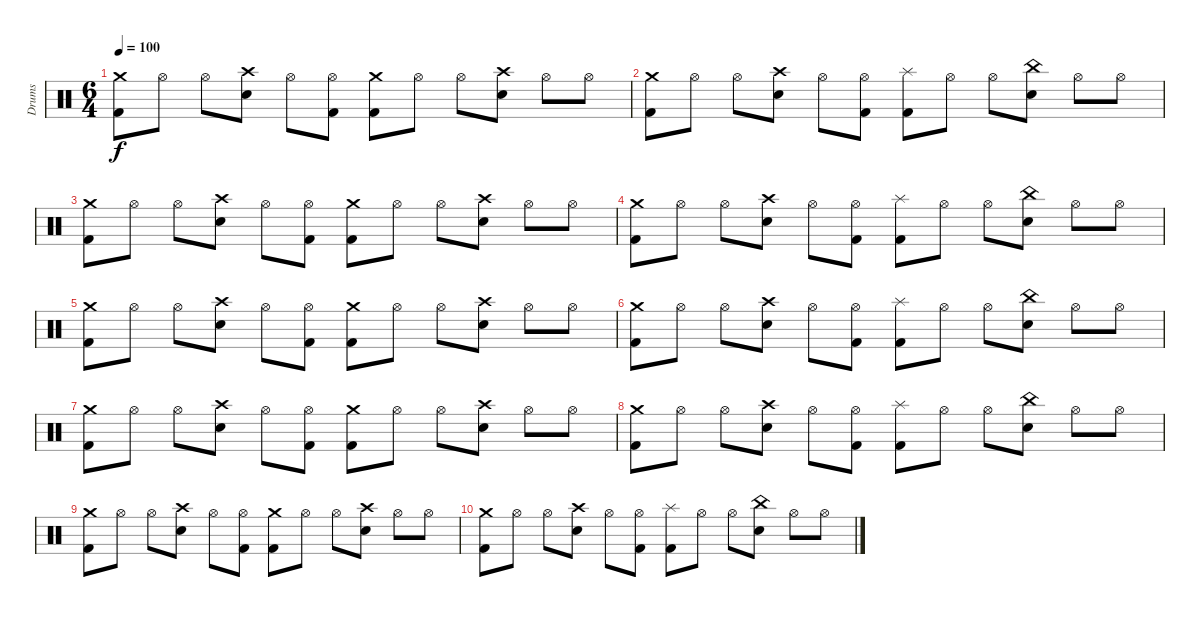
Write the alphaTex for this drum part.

\track ("Drums" "Drums") {instrument percussion}
\staff {score}
\articulation defaults
\ts (6 4)
\tempo 100
\clef neutral
\ks c
("Crash medium (hit)" "Kick (hit) 2").8{dy f} "Hi-Hat (open)".8 "Hi-Hat (open)".8 ("Crash high (hit)" "Electric Snare (hit)").8 "Hi-Hat (open)".8 ("Hi-Hat (open)" "Kick (hit) 2").8 ("Crash medium (hit)" "Kick (hit) 2").8 "Hi-Hat (open)".8 "Hi-Hat (open)".8 ("Crash high (hit)" "Electric Snare (hit)").8 "Hi-Hat (open)".8 "Hi-Hat (open)".8 |
("Crash medium (hit)" "Kick (hit) 2").8 "Hi-Hat (open)".8 "Hi-Hat (open)".8 ("Crash high (hit)" "Electric Snare (hit)").8 "Hi-Hat (open)".8 ("Hi-Hat (open)" "Kick (hit) 2").8 ("Splash (hit)" "Kick (hit) 2").8 "Hi-Hat (open)".8 "Hi-Hat (open)".8 ("China (hit)" "Electric Snare (hit)").8 "Hi-Hat (open)".8 "Hi-Hat (open)".8 |
("Crash medium (hit)" "Kick (hit) 2").8 "Hi-Hat (open)".8 "Hi-Hat (open)".8 ("Crash high (hit)" "Electric Snare (hit)").8 "Hi-Hat (open)".8 ("Hi-Hat (open)" "Kick (hit) 2").8 ("Crash medium (hit)" "Kick (hit) 2").8 "Hi-Hat (open)".8 "Hi-Hat (open)".8 ("Crash high (hit)" "Electric Snare (hit)").8 "Hi-Hat (open)".8 "Hi-Hat (open)".8 |
("Crash medium (hit)" "Kick (hit) 2").8 "Hi-Hat (open)".8 "Hi-Hat (open)".8 ("Crash high (hit)" "Electric Snare (hit)").8 "Hi-Hat (open)".8 ("Hi-Hat (open)" "Kick (hit) 2").8 ("Splash (hit)" "Kick (hit) 2").8 "Hi-Hat (open)".8 "Hi-Hat (open)".8 ("China (hit)" "Electric Snare (hit)").8 "Hi-Hat (open)".8 "Hi-Hat (open)".8 |
("Crash medium (hit)" "Kick (hit) 2").8 "Hi-Hat (open)".8 "Hi-Hat (open)".8 ("Crash high (hit)" "Electric Snare (hit)").8 "Hi-Hat (open)".8 ("Hi-Hat (open)" "Kick (hit) 2").8 ("Crash medium (hit)" "Kick (hit) 2").8 "Hi-Hat (open)".8 "Hi-Hat (open)".8 ("Crash high (hit)" "Electric Snare (hit)").8 "Hi-Hat (open)".8 "Hi-Hat (open)".8 |
("Crash medium (hit)" "Kick (hit) 2").8 "Hi-Hat (open)".8 "Hi-Hat (open)".8 ("Crash high (hit)" "Electric Snare (hit)").8 "Hi-Hat (open)".8 ("Hi-Hat (open)" "Kick (hit) 2").8 ("Splash (hit)" "Kick (hit) 2").8 "Hi-Hat (open)".8 "Hi-Hat (open)".8 ("China (hit)" "Electric Snare (hit)").8 "Hi-Hat (open)".8 "Hi-Hat (open)".8 |
("Crash medium (hit)" "Kick (hit) 2").8 "Hi-Hat (open)".8 "Hi-Hat (open)".8 ("Crash high (hit)" "Electric Snare (hit)").8 "Hi-Hat (open)".8 ("Hi-Hat (open)" "Kick (hit) 2").8 ("Crash medium (hit)" "Kick (hit) 2").8 "Hi-Hat (open)".8 "Hi-Hat (open)".8 ("Crash high (hit)" "Electric Snare (hit)").8 "Hi-Hat (open)".8 "Hi-Hat (open)".8 |
("Crash medium (hit)" "Kick (hit) 2").8 "Hi-Hat (open)".8 "Hi-Hat (open)".8 ("Crash high (hit)" "Electric Snare (hit)").8 "Hi-Hat (open)".8 ("Hi-Hat (open)" "Kick (hit) 2").8 ("Splash (hit)" "Kick (hit) 2").8 "Hi-Hat (open)".8 "Hi-Hat (open)".8 ("China (hit)" "Electric Snare (hit)").8 "Hi-Hat (open)".8 "Hi-Hat (open)".8 |
("Crash medium (hit)" "Kick (hit) 2").8 "Hi-Hat (open)".8 "Hi-Hat (open)".8 ("Crash high (hit)" "Electric Snare (hit)").8 "Hi-Hat (open)".8 ("Hi-Hat (open)" "Kick (hit) 2").8 ("Crash medium (hit)" "Kick (hit) 2").8 "Hi-Hat (open)".8 "Hi-Hat (open)".8 ("Crash high (hit)" "Electric Snare (hit)").8 "Hi-Hat (open)".8 "Hi-Hat (open)".8 |
("Crash medium (hit)" "Kick (hit) 2").8 "Hi-Hat (open)".8 "Hi-Hat (open)".8 ("Crash high (hit)" "Electric Snare (hit)").8 "Hi-Hat (open)".8 ("Hi-Hat (open)" "Kick (hit) 2").8 ("Splash (hit)" "Kick (hit) 2").8 "Hi-Hat (open)".8 "Hi-Hat (open)".8 ("China (hit)" "Electric Snare (hit)").8 "Hi-Hat (open)".8 "Hi-Hat (open)".8
